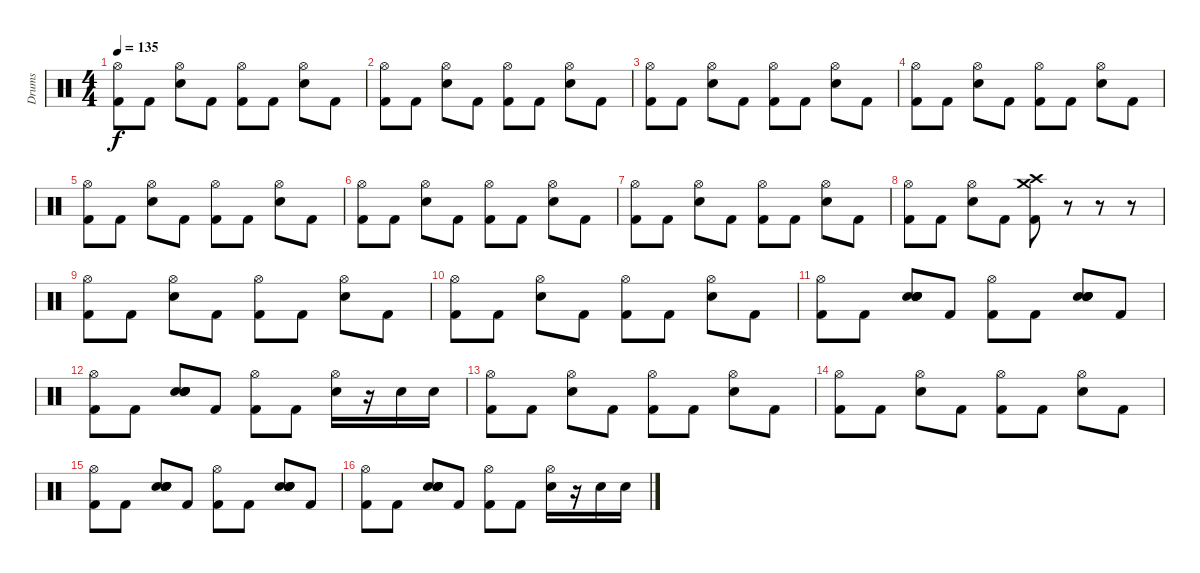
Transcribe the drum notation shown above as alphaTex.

\track ("Drums" "Drums") {instrument percussion}
\staff {score}
\articulation defaults
\ts (4 4)
\tempo 135
\clef neutral
\ks c
("Hi-Hat (open)" "Kick (hit) 2").8{dy f} "Kick (hit) 2".8 ("Hi-Hat (open)" "Electric Snare (hit)").8 "Kick (hit) 2".8 ("Hi-Hat (open)" "Kick (hit) 2").8 "Kick (hit) 2".8 ("Hi-Hat (open)" "Electric Snare (hit)").8 "Kick (hit) 2".8 |
("Hi-Hat (open)" "Kick (hit) 2").8 "Kick (hit) 2".8 ("Hi-Hat (open)" "Electric Snare (hit)").8 "Kick (hit) 2".8 ("Hi-Hat (open)" "Kick (hit) 2").8 "Kick (hit) 2".8 ("Hi-Hat (open)" "Electric Snare (hit)").8 "Kick (hit) 2".8 |
("Hi-Hat (open)" "Kick (hit) 2").8 "Kick (hit) 2".8 ("Hi-Hat (open)" "Electric Snare (hit)").8 "Kick (hit) 2".8 ("Hi-Hat (open)" "Kick (hit) 2").8 "Kick (hit) 2".8 ("Hi-Hat (open)" "Electric Snare (hit)").8 "Kick (hit) 2".8 |
("Hi-Hat (open)" "Kick (hit) 2").8 "Kick (hit) 2".8 ("Hi-Hat (open)" "Electric Snare (hit)").8 "Kick (hit) 2".8 ("Hi-Hat (open)" "Kick (hit) 2").8 "Kick (hit) 2".8 ("Hi-Hat (open)" "Electric Snare (hit)").8 "Kick (hit) 2".8 |
("Hi-Hat (open)" "Kick (hit) 2").8 "Kick (hit) 2".8 ("Hi-Hat (open)" "Electric Snare (hit)").8 "Kick (hit) 2".8 ("Hi-Hat (open)" "Kick (hit) 2").8 "Kick (hit) 2".8 ("Hi-Hat (open)" "Electric Snare (hit)").8 "Kick (hit) 2".8 |
("Hi-Hat (open)" "Kick (hit) 2").8 "Kick (hit) 2".8 ("Hi-Hat (open)" "Electric Snare (hit)").8 "Kick (hit) 2".8 ("Hi-Hat (open)" "Kick (hit) 2").8 "Kick (hit) 2".8 ("Hi-Hat (open)" "Electric Snare (hit)").8 "Kick (hit) 2".8 |
("Hi-Hat (open)" "Kick (hit) 2").8 "Kick (hit) 2".8 ("Hi-Hat (open)" "Electric Snare (hit)").8 "Kick (hit) 2".8 ("Hi-Hat (open)" "Kick (hit) 2").8 "Kick (hit) 2".8 ("Hi-Hat (open)" "Electric Snare (hit)").8 "Kick (hit) 2".8 |
("Hi-Hat (open)" "Kick (hit) 2").8 "Kick (hit) 2".8 ("Hi-Hat (open)" "Electric Snare (hit)").8 "Kick (hit) 2".8 ("Crash medium (hit)" "Crash high (hit)" "Kick (hit) 2").8 r.8 r.8 r.8 |
("Hi-Hat (open)" "Kick (hit) 2").8 "Kick (hit) 2".8 ("Hi-Hat (open)" "Electric Snare (hit)").8 "Kick (hit) 2".8 ("Hi-Hat (open)" "Kick (hit) 2").8 "Kick (hit) 2".8 ("Hi-Hat (open)" "Electric Snare (hit)").8 "Kick (hit) 2".8 |
("Hi-Hat (open)" "Kick (hit) 2").8 "Kick (hit) 2".8 ("Hi-Hat (open)" "Electric Snare (hit)").8 "Kick (hit) 2".8 ("Hi-Hat (open)" "Kick (hit) 2").8 "Kick (hit) 2".8 ("Hi-Hat (open)" "Electric Snare (hit)").8 "Kick (hit) 2".8 |
("Hi-Hat (open)" "Kick (hit) 2").8 "Kick (hit) 2".8 ("Electric Snare (hit)" "Electric Snare (hit)" "Electric Snare (hit)" "Electric Snare (hit)").8 "Kick (hit) 2".8 ("Hi-Hat (open)" "Kick (hit) 2").8 "Kick (hit) 2".8 ("Electric Snare (hit)" "Electric Snare (hit)" "Electric Snare (hit)" "Electric Snare (hit)").8 "Kick (hit) 2".8 |
("Hi-Hat (open)" "Kick (hit) 2").8 "Kick (hit) 2".8 ("Electric Snare (hit)" "Electric Snare (hit)" "Electric Snare (hit)" "Electric Snare (hit)").8 "Kick (hit) 2".8 ("Hi-Hat (open)" "Kick (hit) 2").8 "Kick (hit) 2".8 ("Hi-Hat (open)" "Electric Snare (hit)").16 r.16 "Electric Snare (hit)".16 "Electric Snare (hit)".16 |
("Hi-Hat (open)" "Kick (hit) 2").8 "Kick (hit) 2".8 ("Hi-Hat (open)" "Electric Snare (hit)").8 "Kick (hit) 2".8 ("Hi-Hat (open)" "Kick (hit) 2").8 "Kick (hit) 2".8 ("Hi-Hat (open)" "Electric Snare (hit)").8 "Kick (hit) 2".8 |
("Hi-Hat (open)" "Kick (hit) 2").8 "Kick (hit) 2".8 ("Hi-Hat (open)" "Electric Snare (hit)").8 "Kick (hit) 2".8 ("Hi-Hat (open)" "Kick (hit) 2").8 "Kick (hit) 2".8 ("Hi-Hat (open)" "Electric Snare (hit)").8 "Kick (hit) 2".8 |
("Hi-Hat (open)" "Kick (hit) 2").8 "Kick (hit) 2".8 ("Electric Snare (hit)" "Electric Snare (hit)" "Electric Snare (hit)" "Electric Snare (hit)").8 "Kick (hit) 2".8 ("Hi-Hat (open)" "Kick (hit) 2").8 "Kick (hit) 2".8 ("Electric Snare (hit)" "Electric Snare (hit)" "Electric Snare (hit)" "Electric Snare (hit)").8 "Kick (hit) 2".8 |
("Hi-Hat (open)" "Kick (hit) 2").8 "Kick (hit) 2".8 ("Electric Snare (hit)" "Electric Snare (hit)" "Electric Snare (hit)" "Electric Snare (hit)").8 "Kick (hit) 2".8 ("Hi-Hat (open)" "Kick (hit) 2").8 "Kick (hit) 2".8 ("Hi-Hat (open)" "Electric Snare (hit)").16 r.16 "Electric Snare (hit)".16 "Electric Snare (hit)".16
